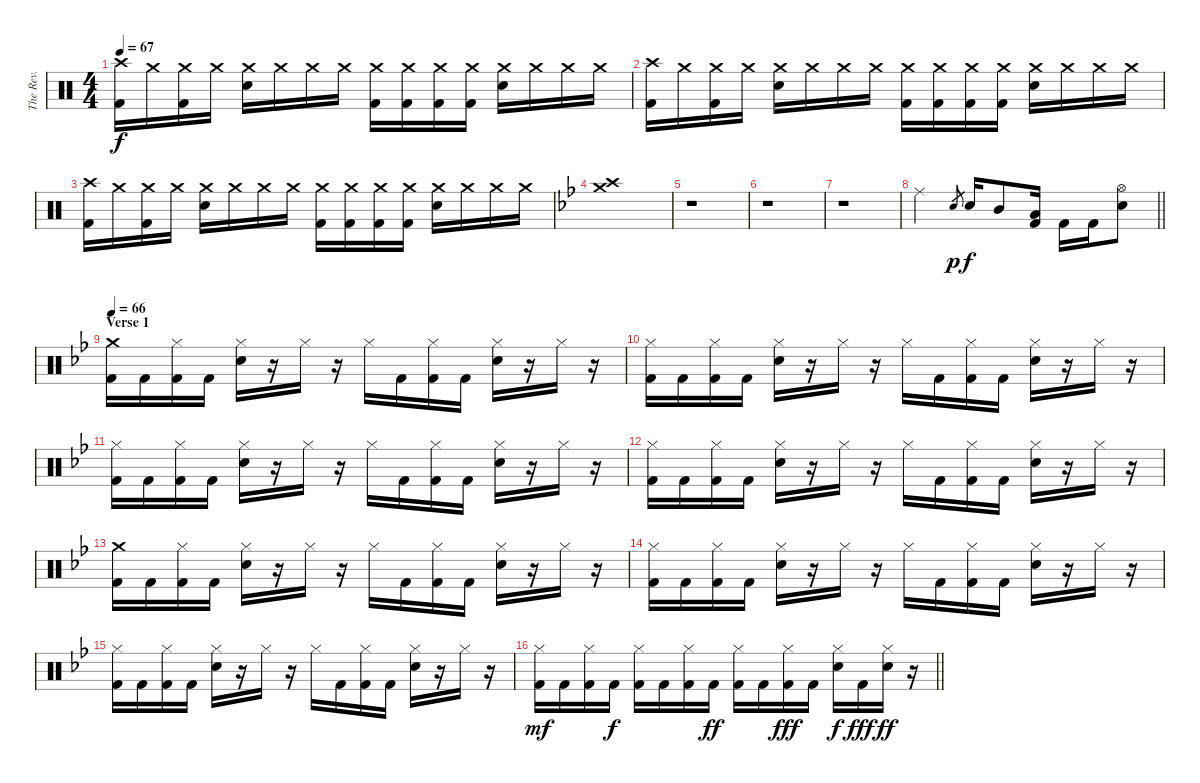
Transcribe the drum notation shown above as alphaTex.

\track ("The Rev." "The Rev.") {instrument percussion}
\staff {score}
\articulation defaults
\ts (4 4)
\tempo 67
\clef neutral
\ks c
("Crash high (hit)" "Kick (hit) 2").16{dy f} "Crash medium (hit)".16 ("Crash medium (hit)" "Kick (hit) 2").16 "Crash medium (hit)".16 ("Crash medium (hit)" "Electric Snare (hit)").16 "Crash medium (hit)".16 "Crash medium (hit)".16 "Crash medium (hit)".16 ("Crash medium (hit)" "Kick (hit) 2").16 ("Crash medium (hit)" "Kick (hit) 2").16 ("Crash medium (hit)" "Kick (hit) 2").16 ("Crash medium (hit)" "Kick (hit) 2").16 ("Crash medium (hit)" "Electric Snare (hit)").16 "Crash medium (hit)".16 "Crash medium (hit)".16 "Crash medium (hit)".16 |
("Crash high (hit)" "Kick (hit) 2").16 "Crash medium (hit)".16 ("Crash medium (hit)" "Kick (hit) 2").16 "Crash medium (hit)".16 ("Crash medium (hit)" "Electric Snare (hit)").16 "Crash medium (hit)".16 "Crash medium (hit)".16 "Crash medium (hit)".16 ("Crash medium (hit)" "Kick (hit) 2").16 ("Crash medium (hit)" "Kick (hit) 2").16 ("Crash medium (hit)" "Kick (hit) 2").16 ("Crash medium (hit)" "Kick (hit) 2").16 ("Crash medium (hit)" "Electric Snare (hit)").16 "Crash medium (hit)".16 "Crash medium (hit)".16 "Crash medium (hit)".16 |
("Crash high (hit)" "Kick (hit) 2").16 "Crash medium (hit)".16 ("Crash medium (hit)" "Kick (hit) 2").16 "Crash medium (hit)".16 ("Crash medium (hit)" "Electric Snare (hit)").16 "Crash medium (hit)".16 "Crash medium (hit)".16 "Crash medium (hit)".16 ("Crash medium (hit)" "Kick (hit) 2").16 ("Crash medium (hit)" "Kick (hit) 2").16 ("Crash medium (hit)" "Kick (hit) 2").16 ("Crash medium (hit)" "Kick (hit) 2").16 ("Crash medium (hit)" "Electric Snare (hit)").16 "Crash medium (hit)".16 "Crash medium (hit)".16 "Crash medium (hit)".16 |
\ks bb
("Crash high (hit)" "Crash medium (hit)").1 |
r.1 |
r.1 |
r.1 |
\barLineRight lightlight "Ride (middle)".2 "Electric Snare (hit)".8{gr dy p} "Electric Snare (hit)".16{dy f} "Mid Tom (hit)".8
("Low Tom (hit)" "Kick (hit) 2").16 "Kick (hit) 2".16 "Kick (hit) 2".16 ("Hi-Hat (open)" "Electric Snare (hit)").8 |
\section ("" "Verse 1")
\tempo 66
("Crash medium (hit)" "Kick (hit) 2").16 "Kick (hit) 2".16 ("Hi-Hat (closed)" "Kick (hit) 2").16 "Kick (hit) 2".16 ("Hi-Hat (closed)" "Electric Snare (hit)").16 r.16 "Hi-Hat (closed)".16 r.16 "Hi-Hat (closed)".16 "Kick (hit) 2".16 ("Hi-Hat (closed)" "Kick (hit) 2").16 "Kick (hit) 2".16 ("Hi-Hat (closed)" "Electric Snare (hit)").16 r.16 "Hi-Hat (closed)".16 r.16 |
("Hi-Hat (closed)" "Kick (hit) 2").16 "Kick (hit) 2".16 ("Hi-Hat (closed)" "Kick (hit) 2").16 "Kick (hit) 2".16 ("Hi-Hat (closed)" "Electric Snare (hit)").16 r.16 "Hi-Hat (closed)".16 r.16 "Hi-Hat (closed)".16 "Kick (hit) 2".16 ("Hi-Hat (closed)" "Kick (hit) 2").16 "Kick (hit) 2".16 ("Hi-Hat (closed)" "Electric Snare (hit)").16 r.16 "Hi-Hat (closed)".16 r.16 |
("Hi-Hat (closed)" "Kick (hit) 2").16 "Kick (hit) 2".16 ("Hi-Hat (closed)" "Kick (hit) 2").16 "Kick (hit) 2".16 ("Hi-Hat (closed)" "Electric Snare (hit)").16 r.16 "Hi-Hat (closed)".16 r.16 "Hi-Hat (closed)".16 "Kick (hit) 2".16 ("Hi-Hat (closed)" "Kick (hit) 2").16 "Kick (hit) 2".16 ("Hi-Hat (closed)" "Electric Snare (hit)").16 r.16 "Hi-Hat (closed)".16 r.16 |
("Hi-Hat (closed)" "Kick (hit) 2").16 "Kick (hit) 2".16 ("Hi-Hat (closed)" "Kick (hit) 2").16 "Kick (hit) 2".16 ("Hi-Hat (closed)" "Electric Snare (hit)").16 r.16 "Hi-Hat (closed)".16 r.16 "Hi-Hat (closed)".16 "Kick (hit) 2".16 ("Hi-Hat (closed)" "Kick (hit) 2").16 "Kick (hit) 2".16 ("Hi-Hat (closed)" "Electric Snare (hit)").16 r.16 "Hi-Hat (closed)".16 r.16 |
("Crash medium (hit)" "Kick (hit) 2").16 "Kick (hit) 2".16 ("Hi-Hat (closed)" "Kick (hit) 2").16 "Kick (hit) 2".16 ("Hi-Hat (closed)" "Electric Snare (hit)").16 r.16 "Hi-Hat (closed)".16 r.16 "Hi-Hat (closed)".16 "Kick (hit) 2".16 ("Hi-Hat (closed)" "Kick (hit) 2").16 "Kick (hit) 2".16 ("Hi-Hat (closed)" "Electric Snare (hit)").16 r.16 "Hi-Hat (closed)".16 r.16 |
("Hi-Hat (closed)" "Kick (hit) 2").16 "Kick (hit) 2".16 ("Hi-Hat (closed)" "Kick (hit) 2").16 "Kick (hit) 2".16 ("Hi-Hat (closed)" "Electric Snare (hit)").16 r.16 "Hi-Hat (closed)".16 r.16 "Hi-Hat (closed)".16 "Kick (hit) 2".16 ("Hi-Hat (closed)" "Kick (hit) 2").16 "Kick (hit) 2".16 ("Hi-Hat (closed)" "Electric Snare (hit)").16 r.16 "Hi-Hat (closed)".16 r.16 |
("Hi-Hat (closed)" "Kick (hit) 2").16 "Kick (hit) 2".16 ("Hi-Hat (closed)" "Kick (hit) 2").16 "Kick (hit) 2".16 ("Hi-Hat (closed)" "Electric Snare (hit)").16 r.16 "Hi-Hat (closed)".16 r.16 "Hi-Hat (closed)".16 "Kick (hit) 2".16 ("Hi-Hat (closed)" "Kick (hit) 2").16 "Kick (hit) 2".16 ("Hi-Hat (closed)" "Electric Snare (hit)").16 r.16 "Hi-Hat (closed)".16 r.16 |
\barLineRight lightlight
("Hi-Hat (closed)" "Kick (hit) 2").16{dy mf} "Kick (hit) 2".16 ("Hi-Hat (closed)" "Kick (hit) 2").16 "Kick (hit) 2".16{dy f} ("Hi-Hat (closed)" "Kick (hit) 2").16 "Kick (hit) 2".16 ("Hi-Hat (closed)" "Kick (hit) 2").16 "Kick (hit) 2".16{dy ff} ("Hi-Hat (closed)" "Kick (hit) 2").16 "Kick (hit) 2".16 ("Hi-Hat (closed)" "Kick (hit) 2").16{dy fff} "Kick (hit) 2".16 ("Hi-Hat (closed)" "Electric Snare (hit)").16{dy f} "Kick (hit) 2".16{dy fff} ("Hi-Hat (closed)" "Electric Snare (hit)").16{dy ff} r.16
